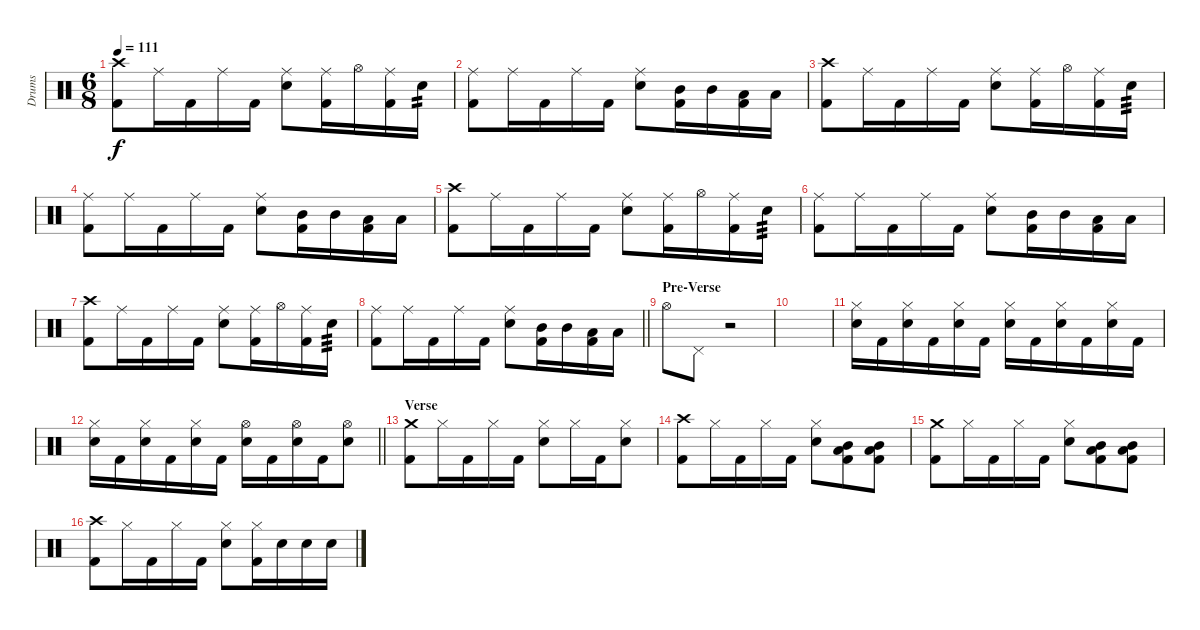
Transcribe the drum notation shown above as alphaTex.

\track ("Drums" "Drums") {instrument percussion}
\staff {score}
\articulation defaults
\ts (6 8)
\tempo 111
\clef neutral
\ks c
("Crash high (hit)" "Kick (hit) 2").8{dy f} "Ride (middle)".16 "Kick (hit) 2".16 "Ride (middle)".16 "Kick (hit) 2".16 ("Snare (hit) 2" "Ride (middle)").8 ("Kick (hit) 2" "Ride (middle)").16 "Hi-Hat (open)".16 ("Ride (middle)" "Kick (hit) 2").16 "Snare (hit) 2".16{tp 2} |
("Ride (middle)" "Kick (hit) 2").8 "Ride (middle)".16 "Kick (hit) 2".16 "Ride (middle)".16 "Kick (hit) 2".16 ("Snare (hit) 2" "Ride (middle)").8 ("Kick (hit) 2" "Mid Tom (hit)").16 "Mid Tom (hit)".16 ("Kick (hit) 2" "Low Tom (hit)").16 "Low Tom (hit)".16 |
("Crash high (hit)" "Kick (hit) 2").8 "Ride (middle)".16 "Kick (hit) 2".16 "Ride (middle)".16 "Kick (hit) 2".16 ("Snare (hit) 2" "Ride (middle)").8 ("Kick (hit) 2" "Ride (middle)").16 "Hi-Hat (open)".16 ("Ride (middle)" "Kick (hit) 2").16 "Snare (hit) 2".16{tp 3} |
("Ride (middle)" "Kick (hit) 2").8 "Ride (middle)".16 "Kick (hit) 2".16 "Ride (middle)".16 "Kick (hit) 2".16 ("Snare (hit) 2" "Ride (middle)").8 ("Kick (hit) 2" "Mid Tom (hit)").16 "Mid Tom (hit)".16 ("Kick (hit) 2" "Low Tom (hit)").16 "Low Tom (hit)".16 |
("Crash high (hit)" "Kick (hit) 2").8 "Ride (middle)".16 "Kick (hit) 2".16 "Ride (middle)".16 "Kick (hit) 2".16 ("Snare (hit) 2" "Ride (middle)").8 ("Kick (hit) 2" "Ride (middle)").16 "Hi-Hat (open)".16 ("Ride (middle)" "Kick (hit) 2").16 "Snare (hit) 2".16{tp 3} |
("Ride (middle)" "Kick (hit) 2").8 "Ride (middle)".16 "Kick (hit) 2".16 "Ride (middle)".16 "Kick (hit) 2".16 ("Snare (hit) 2" "Ride (middle)").8 ("Kick (hit) 2" "Mid Tom (hit)").16 "Mid Tom (hit)".16 ("Kick (hit) 2" "Low Tom (hit)").16 "Low Tom (hit)".16 |
("Crash high (hit)" "Kick (hit) 2").8 "Ride (middle)".16 "Kick (hit) 2".16 "Ride (middle)".16 "Kick (hit) 2".16 ("Snare (hit) 2" "Ride (middle)").8 ("Kick (hit) 2" "Ride (middle)").16 "Hi-Hat (open)".16 ("Ride (middle)" "Kick (hit) 2").16 "Snare (hit) 2".16{tp 3} |
\barLineRight lightlight
("Ride (middle)" "Kick (hit) 2").8 "Ride (middle)".16 "Kick (hit) 2".16 "Ride (middle)".16 "Kick (hit) 2".16 ("Snare (hit) 2" "Ride (middle)").8 ("Kick (hit) 2" "Mid Tom (hit)").16 "Mid Tom (hit)".16 ("Kick (hit) 2" "Low Tom (hit)").16 "Low Tom (hit)".16 |
\section ("" "Pre-Verse")
"Hi-Hat (open)".8 "Pedal Hi-Hat (hit)".8 r.2 |
|
("Hi-Hat (closed)" "Snare (hit) 2").16 "Kick (hit) 2".16 ("Snare (hit) 2" "Hi-Hat (closed)").16 "Kick (hit) 2".16 ("Hi-Hat (closed)" "Snare (hit) 2").16 "Kick (hit) 2".16 ("Snare (hit) 2" "Hi-Hat (closed)").16 "Kick (hit) 2".16 ("Snare (hit) 2" "Hi-Hat (closed)").16 "Kick (hit) 2".16 ("Snare (hit) 2" "Hi-Hat (closed)").16 "Kick (hit) 2".16 |
\barLineRight lightlight
("Hi-Hat (closed)" "Snare (hit) 2").16 "Kick (hit) 2".16 ("Snare (hit) 2" "Hi-Hat (closed)").16 "Kick (hit) 2".16 ("Hi-Hat (closed)" "Snare (hit) 2").16 "Kick (hit) 2".16 ("Snare (hit) 2" "Hi-Hat (open)").16 "Kick (hit) 2".16 ("Snare (hit) 2" "Hi-Hat (open)").16 "Kick (hit) 2".16 ("Snare (hit) 2" "Hi-Hat (open)").8 |
\section ("" "Verse")
("Crash medium (hit)" "Kick (hit) 2").8 "Hi-Hat (closed)".16 "Kick (hit) 2".16 "Hi-Hat (closed)".16 "Kick (hit) 2".16 ("Snare (hit) 2" "Hi-Hat (closed)").8 "Hi-Hat (closed)".16 "Kick (hit) 2".16 ("Hi-Hat (closed)" "Snare (hit) 2").8 |
("Crash high (hit)" "Kick (hit) 2").8 "Hi-Hat (closed)".16 "Kick (hit) 2".16 "Hi-Hat (closed)".16 "Kick (hit) 2".16 ("Hi-Hat (closed)" "Snare (hit) 2").8 ("Low Tom (hit)" "Mid Tom (hit)" "Kick (hit) 2").8 ("Mid Tom (hit)" "Low Tom (hit)" "Kick (hit) 2").8 |
("Crash medium (hit)" "Kick (hit) 2").8 "Hi-Hat (closed)".16 "Kick (hit) 2".16 "Hi-Hat (closed)".16 "Kick (hit) 2".16 ("Hi-Hat (closed)" "Snare (hit) 2").8 ("Low Tom (hit)" "Mid Tom (hit)" "Kick (hit) 2").8 ("Mid Tom (hit)" "Low Tom (hit)" "Kick (hit) 2").8 |
("Crash high (hit)" "Kick (hit) 2").8 "Hi-Hat (closed)".16 "Kick (hit) 2".16 "Hi-Hat (closed)".16 "Kick (hit) 2".16 ("Hi-Hat (closed)" "Snare (hit) 2").8 ("Kick (hit) 2" "Hi-Hat (closed)").16 "Snare (hit) 2".16 "Snare (hit) 2".16 "Snare (hit) 2".16
